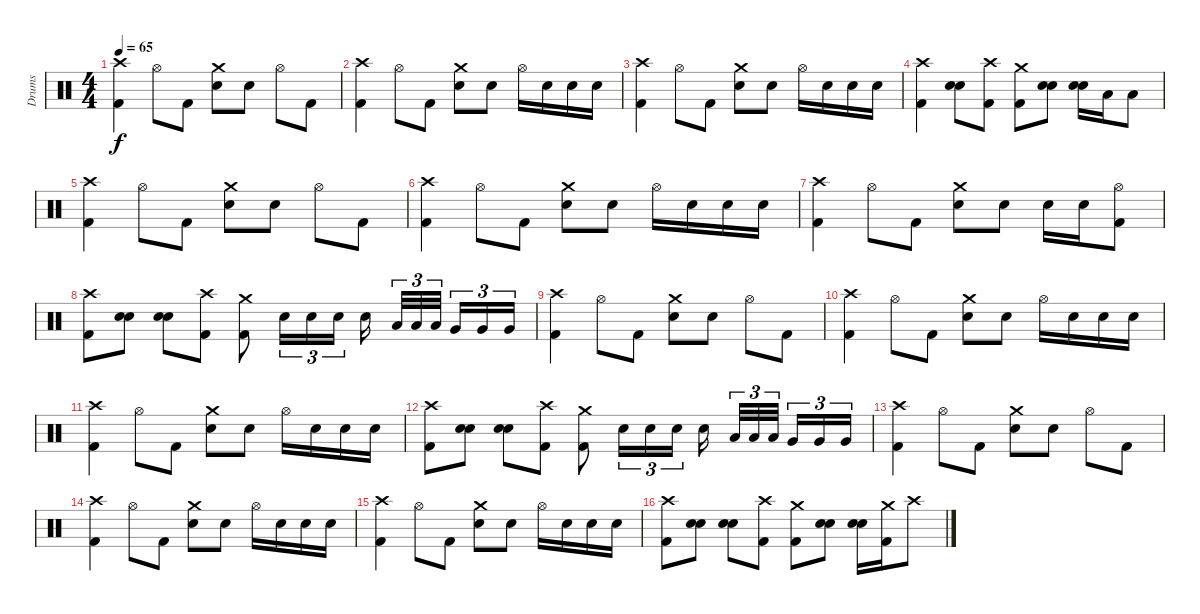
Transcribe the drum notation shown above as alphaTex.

\track ("Drums" "Drums") {instrument percussion}
\staff {score}
\articulation defaults
\ts (4 4)
\tempo 65
\clef neutral
\ks c
("Crash high (hit)" "Kick (hit) 2").4{dy f} "Hi-Hat (open)".8 "Kick (hit) 2".8 ("Crash medium (hit)" "Electric Snare (hit)").8 "Electric Snare (hit)".8 "Hi-Hat (open)".8 "Kick (hit) 2".8 |
("Crash high (hit)" "Kick (hit) 2").4 "Hi-Hat (open)".8 "Kick (hit) 2".8 ("Crash medium (hit)" "Electric Snare (hit)").8 "Electric Snare (hit)".8 "Hi-Hat (open)".16 "Electric Snare (hit)".16 "Electric Snare (hit)".16 "Electric Snare (hit)".16 |
("Crash high (hit)" "Kick (hit) 2").4 "Hi-Hat (open)".8 "Kick (hit) 2".8 ("Crash medium (hit)" "Electric Snare (hit)").8 "Electric Snare (hit)".8 "Hi-Hat (open)".16 "Electric Snare (hit)".16 "Electric Snare (hit)".16 "Electric Snare (hit)".16 |
("Crash high (hit)" "Kick (hit) 2").4 ("Electric Snare (hit)" "Electric Snare (hit)").8{bu 60} ("Crash high (hit)" "Kick (hit) 2").8 ("Crash medium (hit)" "Kick (hit) 2").8 ("Electric Snare (hit)" "Electric Snare (hit)").8{bu 60} ("Electric Snare (hit)" "Electric Snare (hit)").16{bu 60} "Low Tom (hit)".16 "Low Tom (hit)".8 |
("Crash high (hit)" "Kick (hit) 2").4 "Hi-Hat (open)".8 "Kick (hit) 2".8 ("Crash medium (hit)" "Electric Snare (hit)").8 "Electric Snare (hit)".8 "Hi-Hat (open)".8 "Kick (hit) 2".8 |
("Crash high (hit)" "Kick (hit) 2").4 "Hi-Hat (open)".8 "Kick (hit) 2".8 ("Crash medium (hit)" "Electric Snare (hit)").8 "Electric Snare (hit)".8 "Hi-Hat (open)".16 "Electric Snare (hit)".16 "Electric Snare (hit)".16 "Electric Snare (hit)".16 |
("Crash high (hit)" "Kick (hit) 2").4 "Hi-Hat (open)".8 "Kick (hit) 2".8 ("Crash medium (hit)" "Electric Snare (hit)").8 "Electric Snare (hit)".8 "Electric Snare (hit)".16 "Electric Snare (hit)".16 ("Hi-Hat (open)" "Kick (hit) 2").8 |
("Crash high (hit)" "Kick (hit) 2").8 ("Electric Snare (hit)" "Electric Snare (hit)").8{bu 60} ("Electric Snare (hit)" "Electric Snare (hit)").8{bu 60} ("Crash high (hit)" "Kick (hit) 2").8 ("Crash medium (hit)" "Kick (hit) 2").8 "Electric Snare (hit)".16{tu (3 2)} "Electric Snare (hit)".16{tu (3 2)} "Electric Snare (hit)".16{tu (3 2)} "Electric Snare (hit)".16 "Low Tom (hit)".32{tu (3 2)} "Low Tom (hit)".32{tu (3 2)} "Low Tom (hit)".32{tu (3 2)} "Very Low Tom (hit)".16{tu (3 2)} "Very Low Tom (hit)".16{tu (3 2)} "Very Low Tom (hit)".16{tu (3 2)} |
("Crash high (hit)" "Kick (hit) 2").4 "Hi-Hat (open)".8 "Kick (hit) 2".8 ("Crash medium (hit)" "Electric Snare (hit)").8 "Electric Snare (hit)".8 "Hi-Hat (open)".8 "Kick (hit) 2".8 |
("Crash high (hit)" "Kick (hit) 2").4 "Hi-Hat (open)".8 "Kick (hit) 2".8 ("Crash medium (hit)" "Electric Snare (hit)").8 "Electric Snare (hit)".8 "Hi-Hat (open)".16 "Electric Snare (hit)".16 "Electric Snare (hit)".16 "Electric Snare (hit)".16 |
("Crash high (hit)" "Kick (hit) 2").4 "Hi-Hat (open)".8 "Kick (hit) 2".8 ("Crash medium (hit)" "Electric Snare (hit)").8 "Electric Snare (hit)".8 "Hi-Hat (open)".16 "Electric Snare (hit)".16 "Electric Snare (hit)".16 "Electric Snare (hit)".16 |
("Crash high (hit)" "Kick (hit) 2").8 ("Electric Snare (hit)" "Electric Snare (hit)").8{bu 60} ("Electric Snare (hit)" "Electric Snare (hit)").8{bu 60} ("Crash high (hit)" "Kick (hit) 2").8 ("Crash medium (hit)" "Kick (hit) 2").8 "Electric Snare (hit)".16{tu (3 2)} "Electric Snare (hit)".16{tu (3 2)} "Electric Snare (hit)".16{tu (3 2)} "Electric Snare (hit)".16 "Low Tom (hit)".32{tu (3 2)} "Low Tom (hit)".32{tu (3 2)} "Low Tom (hit)".32{tu (3 2)} "Very Low Tom (hit)".16{tu (3 2)} "Very Low Tom (hit)".16{tu (3 2)} "Very Low Tom (hit)".16{tu (3 2)} |
("Crash high (hit)" "Kick (hit) 2").4 "Hi-Hat (open)".8 "Kick (hit) 2".8 ("Crash medium (hit)" "Electric Snare (hit)").8 "Electric Snare (hit)".8 "Hi-Hat (open)".8 "Kick (hit) 2".8 |
("Crash high (hit)" "Kick (hit) 2").4 "Hi-Hat (open)".8 "Kick (hit) 2".8 ("Crash medium (hit)" "Electric Snare (hit)").8 "Electric Snare (hit)".8 "Hi-Hat (open)".16 "Electric Snare (hit)".16 "Electric Snare (hit)".16 "Electric Snare (hit)".16 |
("Crash high (hit)" "Kick (hit) 2").4 "Hi-Hat (open)".8 "Kick (hit) 2".8 ("Crash medium (hit)" "Electric Snare (hit)").8 "Electric Snare (hit)".8 "Hi-Hat (open)".16 "Electric Snare (hit)".16 "Electric Snare (hit)".16 "Electric Snare (hit)".16 |
("Crash high (hit)" "Kick (hit) 2").8 ("Electric Snare (hit)" "Electric Snare (hit)").8{bu 60} ("Electric Snare (hit)" "Electric Snare (hit)").8{bu 60} ("Crash high (hit)" "Kick (hit) 2").8 ("Crash medium (hit)" "Kick (hit) 2").8 ("Electric Snare (hit)" "Electric Snare (hit)").8{bu 60} ("Electric Snare (hit)" "Electric Snare (hit)").16{bu 60} ("Crash medium (hit)" "Kick (hit) 2").16 "Crash high (hit)".8
